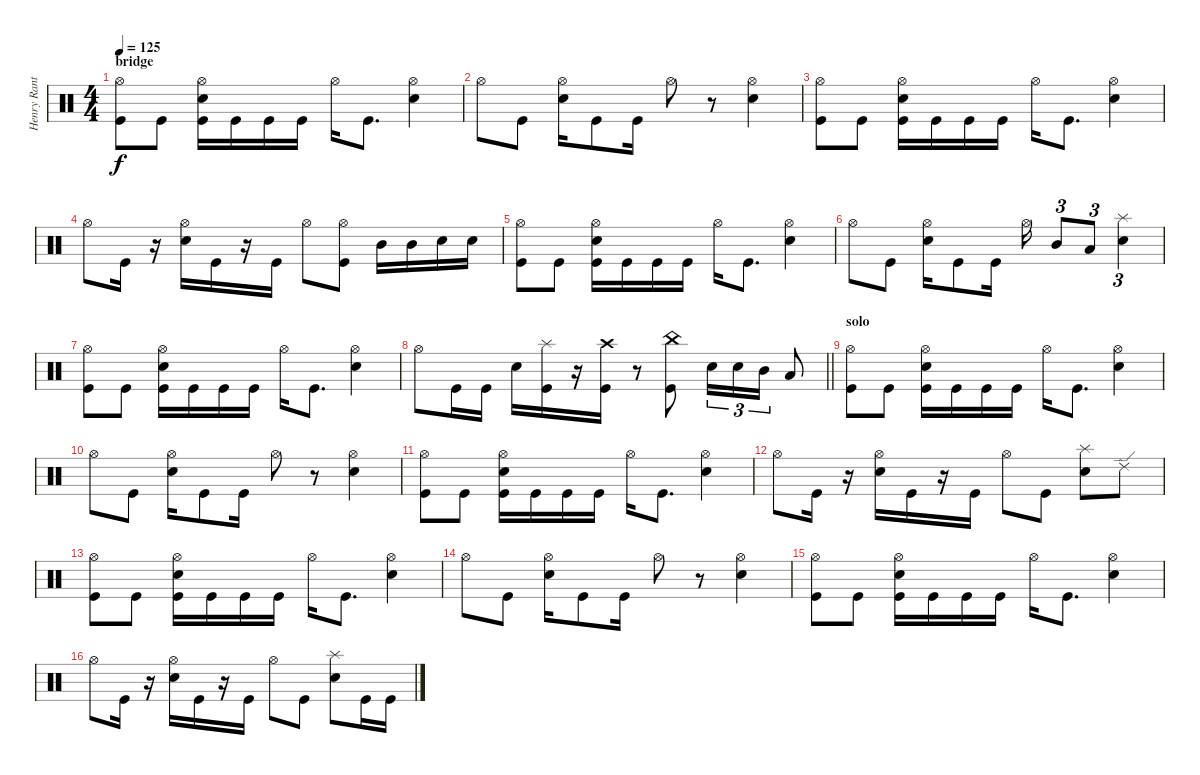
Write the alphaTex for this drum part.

\track ("Henry Ranta" "Henry Rant") {instrument percussion}
\staff {score}
\articulation defaults
\ts (4 4)
\section ("" "bridge")
\tempo 125
\clef neutral
\ks c
("Hi-Hat (open)" "Kick (hit)").8{dy f} "Kick (hit)".8 ("Hi-Hat (open)" "Electric Snare (hit)" "Kick (hit)").16 "Kick (hit)".16 "Kick (hit)".16 "Kick (hit)".16 "Hi-Hat (open)".16 "Kick (hit)".8{d} ("Hi-Hat (open)" "Electric Snare (hit)").4 |
"Hi-Hat (open)".8 "Kick (hit)".8 ("Hi-Hat (open)" "Electric Snare (hit)").16 "Kick (hit)".8 "Kick (hit)".16 "Hi-Hat (open)".8 r.8 ("Hi-Hat (open)" "Electric Snare (hit)").4 |
("Hi-Hat (open)" "Kick (hit)").8 "Kick (hit)".8 ("Hi-Hat (open)" "Electric Snare (hit)" "Kick (hit)").16 "Kick (hit)".16 "Kick (hit)".16 "Kick (hit)".16 "Hi-Hat (open)".16 "Kick (hit)".8{d} ("Hi-Hat (open)" "Electric Snare (hit)").4 |
"Hi-Hat (open)".8 "Kick (hit)".16 r.16 ("Hi-Hat (open)" "Electric Snare (hit)").16 "Kick (hit)".16 r.16 "Kick (hit)".16 "Hi-Hat (open)".8 ("Hi-Hat (open)" "Kick (hit)").8 "Mid Tom (hit)".16 "Mid Tom (hit)".16 "Electric Snare (hit)".16 "Electric Snare (hit)".16 |
("Hi-Hat (open)" "Kick (hit)").8 "Kick (hit)".8 ("Hi-Hat (open)" "Electric Snare (hit)" "Kick (hit)").16 "Kick (hit)".16 "Kick (hit)".16 "Kick (hit)".16 "Hi-Hat (open)".16 "Kick (hit)".8{d} ("Hi-Hat (open)" "Electric Snare (hit)").4 |
"Hi-Hat (open)".8 "Kick (hit)".8 ("Hi-Hat (open)" "Electric Snare (hit)").16 "Kick (hit)".8 "Kick (hit)".16 "Hi-Hat (open)".16 "Mid Tom (hit)".8{tu (3 2)} "Low Tom (hit)".8{tu (3 2)} ("Splash (hit)" "Electric Snare (hit)").4{tu (3 2)} |
("Hi-Hat (open)" "Kick (hit)").8 "Kick (hit)".8 ("Hi-Hat (open)" "Electric Snare (hit)" "Kick (hit)").16 "Kick (hit)".16 "Kick (hit)".16 "Kick (hit)".16 "Hi-Hat (open)".16 "Kick (hit)".8{d} ("Hi-Hat (open)" "Electric Snare (hit)").4 |
\barLineRight lightlight "Hi-Hat (open)".8 "Kick (hit)".16 "Kick (hit)".16 "Electric Snare (hit)".16
("Splash (hit)" "Kick (hit)").16 r.16 ("Crash high (hit)" "Kick (hit)").16 r.8 ("China (hit)" "Kick (hit)").8 "Electric Snare (hit)".16{tu (3 2)} "Electric Snare (hit)".16{tu (3 2)} "Mid Tom (hit)".16{tu (3 2)} "Low Tom (hit)".8 |
\section ("" "solo")
("Hi-Hat (open)" "Kick (hit)").8 "Kick (hit)".8 ("Hi-Hat (open)" "Electric Snare (hit)" "Kick (hit)").16 "Kick (hit)".16 "Kick (hit)".16 "Kick (hit)".16 "Hi-Hat (open)".16 "Kick (hit)".8{d} ("Hi-Hat (open)" "Electric Snare (hit)").4 |
"Hi-Hat (open)".8 "Kick (hit)".8 ("Hi-Hat (open)" "Electric Snare (hit)").16 "Kick (hit)".8 "Kick (hit)".16 "Hi-Hat (open)".8 r.8 ("Hi-Hat (open)" "Electric Snare (hit)").4 |
("Hi-Hat (open)" "Kick (hit)").8 "Kick (hit)".8 ("Hi-Hat (open)" "Electric Snare (hit)" "Kick (hit)").16 "Kick (hit)".16 "Kick (hit)".16 "Kick (hit)".16 "Hi-Hat (open)".16 "Kick (hit)".8{d} ("Hi-Hat (open)" "Electric Snare (hit)").4 |
"Hi-Hat (open)".8 "Kick (hit)".16 r.16 ("Hi-Hat (open)" "Electric Snare (hit)").16 "Kick (hit)".16 r.16 "Kick (hit)".16 "Hi-Hat (open)".8 "Kick (hit)".8 ("Splash (hit)" "Electric Snare (hit)").8 "Ride (edge) 2".8 |
("Hi-Hat (open)" "Kick (hit)").8 "Kick (hit)".8 ("Hi-Hat (open)" "Electric Snare (hit)" "Kick (hit)").16 "Kick (hit)".16 "Kick (hit)".16 "Kick (hit)".16 "Hi-Hat (open)".16 "Kick (hit)".8{d} ("Hi-Hat (open)" "Electric Snare (hit)").4 |
"Hi-Hat (open)".8 "Kick (hit)".8 ("Hi-Hat (open)" "Electric Snare (hit)").16 "Kick (hit)".8 "Kick (hit)".16 "Hi-Hat (open)".8 r.8 ("Hi-Hat (open)" "Electric Snare (hit)").4 |
("Hi-Hat (open)" "Kick (hit)").8 "Kick (hit)".8 ("Hi-Hat (open)" "Electric Snare (hit)" "Kick (hit)").16 "Kick (hit)".16 "Kick (hit)".16 "Kick (hit)".16 "Hi-Hat (open)".16 "Kick (hit)".8{d} ("Hi-Hat (open)" "Electric Snare (hit)").4 |
"Hi-Hat (open)".8 "Kick (hit)".16 r.16 ("Hi-Hat (open)" "Electric Snare (hit)").16 "Kick (hit)".16 r.16 "Kick (hit)".16 "Hi-Hat (open)".8 "Kick (hit)".8 ("Splash (hit)" "Electric Snare (hit)").8 "Kick (hit)".16 "Kick (hit)".16
